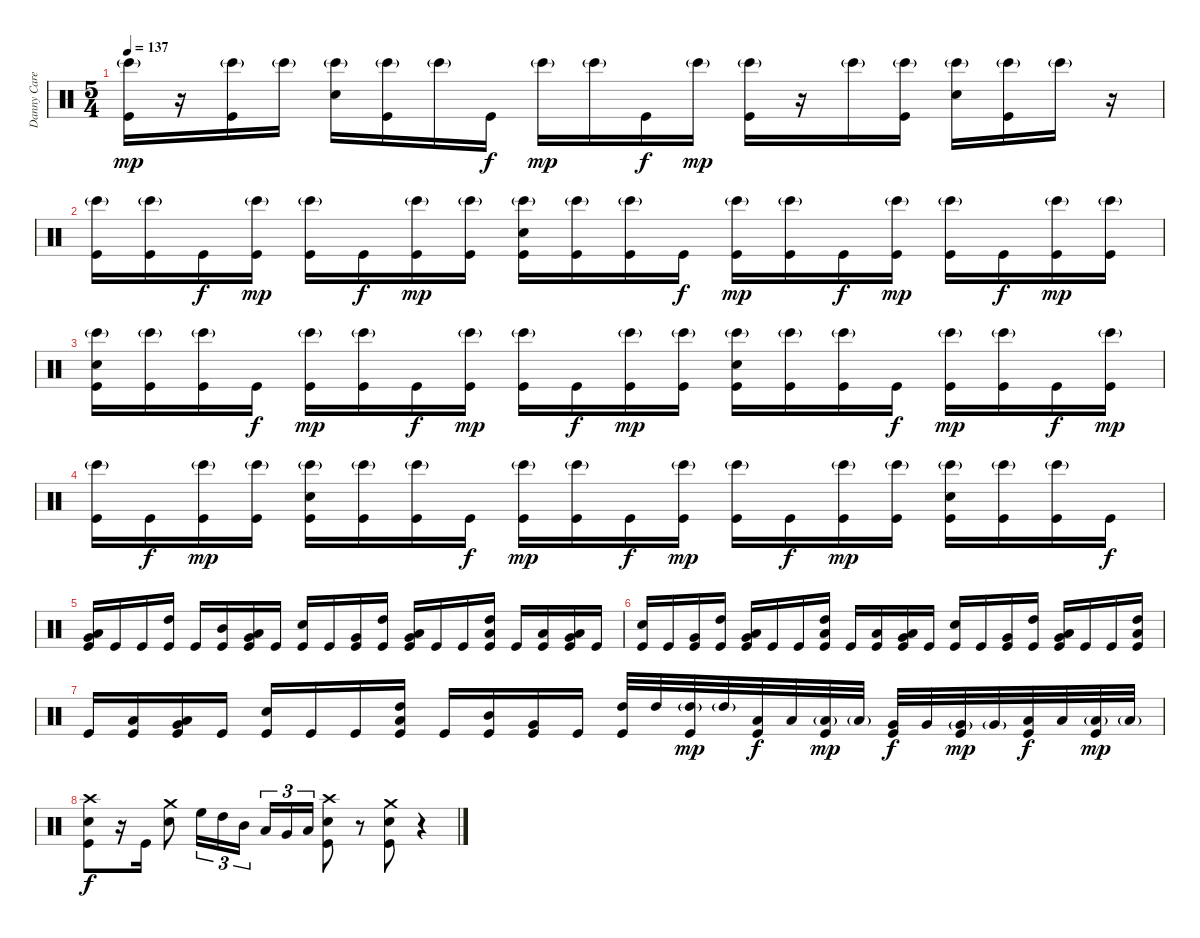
\track ("Danny Carey (drum)" "Danny Care") {instrument percussion}
\staff {score}
\articulation defaults
\ts (5 4)
\tempo 137
\clef neutral
\ks c
("Bongo High (hit)"{g} "Kick (hit)").16{dy mp} r.16 ("Bongo High (hit)"{g} "Kick (hit)").16 "Bongo High (hit)"{g}.16 ("Bongo High (hit)"{g} "Snare (hit) 2").16 ("Bongo High (hit)"{g} "Kick (hit)").16 "Bongo High (hit)"{g}.16 "Kick (hit)".16{dy f} "Bongo High (hit)"{g}.16{dy mp} "Bongo High (hit)"{g}.16 "Kick (hit)".16{dy f} "Bongo High (hit)"{g}.16{dy mp} ("Bongo High (hit)"{g} "Kick (hit)").16 r.16 "Bongo High (hit)"{g}.16 ("Bongo High (hit)"{g} "Kick (hit)").16 ("Bongo High (hit)"{g} "Snare (hit) 2").16 ("Bongo High (hit)"{g} "Kick (hit)").16 "Bongo High (hit)"{g}.16 r.16 |
("Bongo High (hit)"{g} "Kick (hit)").16 ("Bongo High (hit)"{g} "Kick (hit)").16 "Kick (hit)".16{dy f} ("Bongo High (hit)"{g} "Kick (hit)").16{dy mp} ("Bongo High (hit)"{g} "Kick (hit)").16 "Kick (hit)".16{dy f} ("Bongo High (hit)"{g} "Kick (hit)").16{dy mp} ("Bongo High (hit)"{g} "Kick (hit)").16 ("Bongo High (hit)"{g} "Snare (hit) 2" "Kick (hit)").16 ("Bongo High (hit)"{g} "Kick (hit)").16 ("Bongo High (hit)"{g} "Kick (hit)").16 "Kick (hit)".16{dy f} ("Bongo High (hit)"{g} "Kick (hit)").16{dy mp} ("Bongo High (hit)"{g} "Kick (hit)").16 "Kick (hit)".16{dy f} ("Bongo High (hit)"{g} "Kick (hit)").16{dy mp} ("Bongo High (hit)"{g} "Kick (hit)").16 "Kick (hit)".16{dy f} ("Bongo High (hit)"{g} "Kick (hit)").16{dy mp} ("Bongo High (hit)"{g} "Kick (hit)").16 |
("Bongo High (hit)"{g} "Snare (hit) 2" "Kick (hit)").16 ("Bongo High (hit)"{g} "Kick (hit)").16 ("Bongo High (hit)"{g} "Kick (hit)").16 "Kick (hit)".16{dy f} ("Bongo High (hit)"{g} "Kick (hit)").16{dy mp} ("Bongo High (hit)"{g} "Kick (hit)").16 "Kick (hit)".16{dy f} ("Bongo High (hit)"{g} "Kick (hit)").16{dy mp} ("Bongo High (hit)"{g} "Kick (hit)").16 "Kick (hit)".16{dy f} ("Bongo High (hit)"{g} "Kick (hit)").16{dy mp} ("Bongo High (hit)"{g} "Kick (hit)").16 ("Bongo High (hit)"{g} "Snare (hit) 2" "Kick (hit)").16 ("Bongo High (hit)"{g} "Kick (hit)").16 ("Bongo High (hit)"{g} "Kick (hit)").16 "Kick (hit)".16{dy f} ("Bongo High (hit)"{g} "Kick (hit)").16{dy mp} ("Bongo High (hit)"{g} "Kick (hit)").16 "Kick (hit)".16{dy f} ("Bongo High (hit)"{g} "Kick (hit)").16{dy mp} |
("Bongo High (hit)"{g} "Kick (hit)").16 "Kick (hit)".16{dy f} ("Bongo High (hit)"{g} "Kick (hit)").16{dy mp} ("Bongo High (hit)"{g} "Kick (hit)").16 ("Bongo High (hit)"{g} "Snare (hit) 2" "Kick (hit)").16 ("Bongo High (hit)"{g} "Kick (hit)").16 ("Bongo High (hit)"{g} "Kick (hit)").16 "Kick (hit)".16{dy f} ("Bongo High (hit)"{g} "Kick (hit)").16{dy mp} ("Bongo High (hit)"{g} "Kick (hit)").16 "Kick (hit)".16{dy f} ("Bongo High (hit)"{g} "Kick (hit)").16{dy mp} ("Bongo High (hit)"{g} "Kick (hit)").16 "Kick (hit)".16{dy f} ("Bongo High (hit)"{g} "Kick (hit)").16{dy mp} ("Bongo High (hit)"{g} "Kick (hit)").16 ("Bongo High (hit)"{g} "Snare (hit) 2" "Kick (hit)").16 ("Bongo High (hit)"{g} "Kick (hit)").16 ("Bongo High (hit)"{g} "Kick (hit)").16 "Kick (hit)".16{dy f} |
("Low Tom (hit)" "Very Low Tom (hit)" "Kick (hit)").16 "Kick (hit)".16 "Kick (hit)".16 ("High Tom (hit)" "Kick (hit)").16 "Kick (hit)".16 ("Mid Tom (hit)" "Kick (hit)").16 ("Very Low Tom (hit)" "Low Floor Tom (hit)" "Kick (hit)").16 "Kick (hit)".16 ("Snare (hit) 2" "Kick (hit)").16 "Kick (hit)".16 ("Very Low Tom (hit)" "Kick (hit)").16 ("High Tom (hit)" "Kick (hit)").16 ("Very Low Tom (hit)" "Low Floor Tom (hit)" "Kick (hit)").16 "Kick (hit)".16 "Kick (hit)".16 ("High Tom (hit)" "Low Tom (hit)" "Kick (hit)").16 "Kick (hit)".16 ("Low Tom (hit)" "Kick (hit)").16 ("Very Low Tom (hit)" "Low Floor Tom (hit)" "Kick (hit)").16 "Kick (hit)".16 |
("Snare (hit) 2" "Kick (hit)").16 "Kick (hit)".16 ("Very Low Tom (hit)" "Kick (hit)").16 ("High Tom (hit)" "Kick (hit)").16 ("Very Low Tom (hit)" "Low Floor Tom (hit)" "Kick (hit)").16 "Kick (hit)".16 "Kick (hit)".16 ("High Tom (hit)" "Low Tom (hit)" "Kick (hit)").16 "Kick (hit)".16 ("Low Tom (hit)" "Kick (hit)").16 ("Very Low Tom (hit)" "Low Floor Tom (hit)" "Kick (hit)").16 "Kick (hit)".16 ("Snare (hit) 2" "Kick (hit)").16 "Kick (hit)".16 ("Very Low Tom (hit)" "Kick (hit)").16 ("High Tom (hit)" "Kick (hit)").16 ("Very Low Tom (hit)" "Low Floor Tom (hit)" "Kick (hit)").16 "Kick (hit)".16 "Kick (hit)".16 ("High Tom (hit)" "Low Tom (hit)" "Kick (hit)").16 |
"Kick (hit)".16 ("Low Tom (hit)" "Kick (hit)").16 ("Very Low Tom (hit)" "Low Floor Tom (hit)" "Kick (hit)").16 "Kick (hit)".16 ("Snare (hit) 2" "Kick (hit)").16 "Kick (hit)".16 "Kick (hit)".16 ("High Tom (hit)" "Low Tom (hit)" "Kick (hit)").16 "Kick (hit)".16 ("Mid Tom (hit)" "Kick (hit)").16 ("Very Low Tom (hit)" "Kick (hit)").16 "Kick (hit)".16 ("High Tom (hit)" "Kick (hit)").32 "High Tom (hit)".32 ("High Tom (hit)"{g} "Kick (hit)").32{dy mp} "High Tom (hit)"{g}.32 ("Low Tom (hit)" "Kick (hit)").32{dy f} "Low Tom (hit)".32 ("Low Tom (hit)"{g} "Kick (hit)").32{dy mp} "Low Tom (hit)"{g}.32 ("Very Low Tom (hit)" "Kick (hit)").32{dy f} "Very Low Tom (hit)".32 ("Very Low Tom (hit)"{g} "Kick (hit)").32{dy mp} "Very Low Tom (hit)"{g}.32 ("Low Tom (hit)" "Kick (hit)").32{dy f} "Low Tom (hit)".32 ("Low Tom (hit)"{g} "Kick (hit)").32{dy mp} "Low Tom (hit)"{g}.32 |
("Crash high (hit)" "Snare (hit) 2" "Kick (hit)").8{dy f} r.16 "Kick (hit)".16 ("Crash medium (hit)" "Snare (hit) 2").8 "High Floor Tom (hit)".16{tu (3 2)} "High Tom (hit)".16{tu (3 2)} "Mid Tom (hit)".16{tu (3 2)} "Low Tom (hit)".16{tu (3 2)} "Very Low Tom (hit)".16{tu (3 2)} "Low Floor Tom (hit)".16{tu (3 2)} ("Crash high (hit)" "Snare (hit) 2" "Kick (hit)").8 r.8 ("Crash medium (hit)" "Snare (hit) 2" "Kick (hit)").8 r.4
